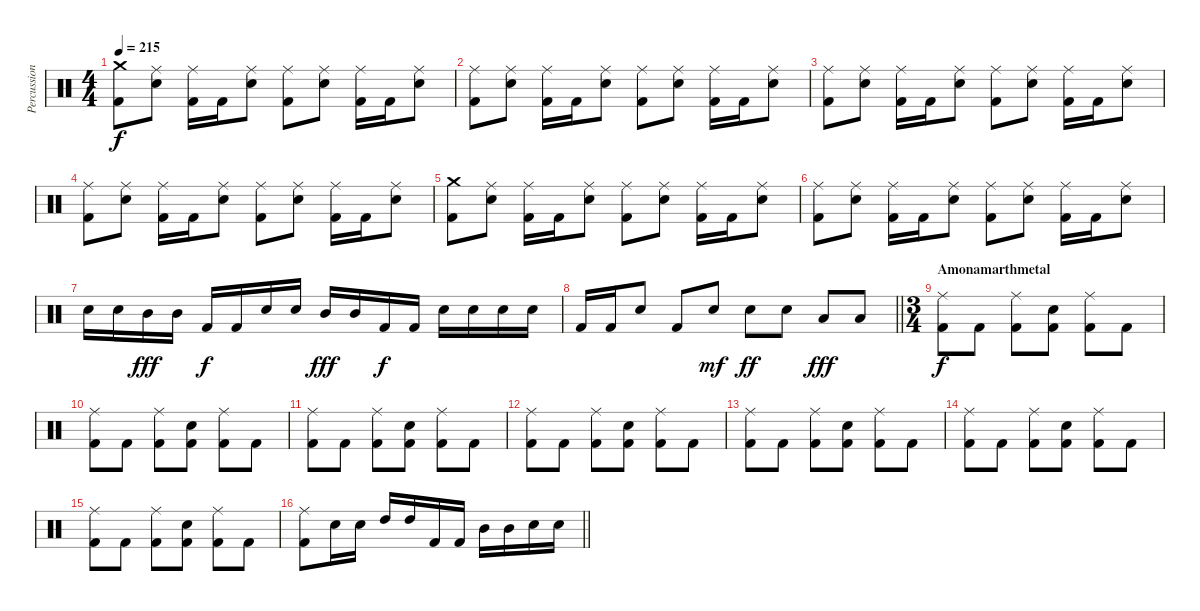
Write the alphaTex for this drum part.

\track ("Percussion" "Percussion") {instrument percussion}
\staff {score}
\articulation defaults
\ts (4 4)
\tempo 215
\clef neutral
\ks c
("Crash medium (hit)" "Kick (hit) 2").8{dy f} ("Ride (middle)" "Electric Snare (hit)").8 ("Ride (middle)" "Kick (hit) 2").16 "Kick (hit) 2".16 ("Ride (middle)" "Electric Snare (hit)").8 ("Ride (middle)" "Kick (hit) 2").8 ("Ride (middle)" "Electric Snare (hit)").8 ("Ride (middle)" "Kick (hit) 2").16 "Kick (hit) 2".16 ("Ride (middle)" "Electric Snare (hit)").8 |
("Ride (middle)" "Kick (hit) 2").8 ("Ride (middle)" "Electric Snare (hit)").8 ("Ride (middle)" "Kick (hit) 2").16 "Kick (hit) 2".16 ("Ride (middle)" "Electric Snare (hit)").8 ("Ride (middle)" "Kick (hit) 2").8 ("Ride (middle)" "Electric Snare (hit)").8 ("Ride (middle)" "Kick (hit) 2").16 "Kick (hit) 2".16 ("Ride (middle)" "Electric Snare (hit)").8 |
("Ride (middle)" "Kick (hit) 2").8 ("Ride (middle)" "Electric Snare (hit)").8 ("Ride (middle)" "Kick (hit) 2").16 "Kick (hit) 2".16 ("Ride (middle)" "Electric Snare (hit)").8 ("Ride (middle)" "Kick (hit) 2").8 ("Ride (middle)" "Electric Snare (hit)").8 ("Ride (middle)" "Kick (hit) 2").16 "Kick (hit) 2".16 ("Ride (middle)" "Electric Snare (hit)").8 |
("Ride (middle)" "Kick (hit) 2").8 ("Ride (middle)" "Electric Snare (hit)").8 ("Ride (middle)" "Kick (hit) 2").16 "Kick (hit) 2".16 ("Ride (middle)" "Electric Snare (hit)").8 ("Ride (middle)" "Kick (hit) 2").8 ("Ride (middle)" "Electric Snare (hit)").8 ("Ride (middle)" "Kick (hit) 2").16 "Kick (hit) 2".16 ("Ride (middle)" "Electric Snare (hit)").8 |
("Crash medium (hit)" "Kick (hit) 2").8 ("Ride (middle)" "Electric Snare (hit)").8 ("Ride (middle)" "Kick (hit) 2").16 "Kick (hit) 2".16 ("Ride (middle)" "Electric Snare (hit)").8 ("Ride (middle)" "Kick (hit) 2").8 ("Ride (middle)" "Electric Snare (hit)").8 ("Ride (middle)" "Kick (hit) 2").16 "Kick (hit) 2".16 ("Ride (middle)" "Electric Snare (hit)").8 |
("Ride (middle)" "Kick (hit) 2").8 ("Ride (middle)" "Electric Snare (hit)").8 ("Ride (middle)" "Kick (hit) 2").16 "Kick (hit) 2".16 ("Ride (middle)" "Electric Snare (hit)").8 ("Ride (middle)" "Kick (hit) 2").8 ("Ride (middle)" "Electric Snare (hit)").8 ("Ride (middle)" "Kick (hit) 2").16 "Kick (hit) 2".16 ("Ride (middle)" "Electric Snare (hit)").8 |
"Electric Snare (hit)".16 "Electric Snare (hit)".16 "Mid Tom (hit)".16{dy fff} "Mid Tom (hit)".16 "Kick (hit) 2".16{dy f} "Kick (hit) 2".16 "Electric Snare (hit)".16 "Electric Snare (hit)".16 "Mid Tom (hit)".16{dy fff} "Mid Tom (hit)".16 "Kick (hit) 2".16{dy f} "Kick (hit) 2".16 "Electric Snare (hit)".16 "Electric Snare (hit)".16 "Electric Snare (hit)".16 "Electric Snare (hit)".16 |
\barLineRight lightlight "Kick (hit) 2".16 "Kick (hit) 2".16 "Electric Snare (hit)".8 "Kick (hit) 2".8 "Electric Snare (hit)".8{dy mf} "Electric Snare (hit)".8{dy ff} "Electric Snare (hit)".8 "Low Tom (hit)".8{dy fff} "Low Tom (hit)".8
|
\ts (3 4)
\section ("" "Amonamarthmetal")
("Ride (middle)" "Kick (hit) 2").8{dy f} "Kick (hit) 2".8 ("Ride (middle)" "Kick (hit) 2").8 ("Electric Snare (hit)" "Kick (hit) 2").8 ("Ride (middle)" "Kick (hit) 2").8 "Kick (hit) 2".8 |
("Ride (middle)" "Kick (hit) 2").8 "Kick (hit) 2".8 ("Ride (middle)" "Kick (hit) 2").8 ("Electric Snare (hit)" "Kick (hit) 2").8 ("Ride (middle)" "Kick (hit) 2").8 "Kick (hit) 2".8 |
("Ride (middle)" "Kick (hit) 2").8 "Kick (hit) 2".8 ("Ride (middle)" "Kick (hit) 2").8 ("Electric Snare (hit)" "Kick (hit) 2").8 ("Ride (middle)" "Kick (hit) 2").8 "Kick (hit) 2".8 |
("Ride (middle)" "Kick (hit) 2").8 "Kick (hit) 2".8 ("Ride (middle)" "Kick (hit) 2").8 ("Electric Snare (hit)" "Kick (hit) 2").8 ("Ride (middle)" "Kick (hit) 2").8 "Kick (hit) 2".8 |
("Ride (middle)" "Kick (hit) 2").8 "Kick (hit) 2".8 ("Ride (middle)" "Kick (hit) 2").8 ("Electric Snare (hit)" "Kick (hit) 2").8 ("Ride (middle)" "Kick (hit) 2").8 "Kick (hit) 2".8 |
("Ride (middle)" "Kick (hit) 2").8 "Kick (hit) 2".8 ("Ride (middle)" "Kick (hit) 2").8 ("Electric Snare (hit)" "Kick (hit) 2").8 ("Ride (middle)" "Kick (hit) 2").8 "Kick (hit) 2".8 |
("Ride (middle)" "Kick (hit) 2").8 "Kick (hit) 2".8 ("Ride (middle)" "Kick (hit) 2").8 ("Electric Snare (hit)" "Kick (hit) 2").8 ("Ride (middle)" "Kick (hit) 2").8 "Kick (hit) 2".8 |
\barLineRight lightlight
("Ride (middle)" "Kick (hit) 2").8 "Electric Snare (hit)".16 "Electric Snare (hit)".16 "High Tom (hit)".16 "High Tom (hit)".16 "Kick (hit) 2".16 "Kick (hit) 2".16 "Mid Tom (hit)".16 "Mid Tom (hit)".16 "Electric Snare (hit)".16 "Electric Snare (hit)".16
